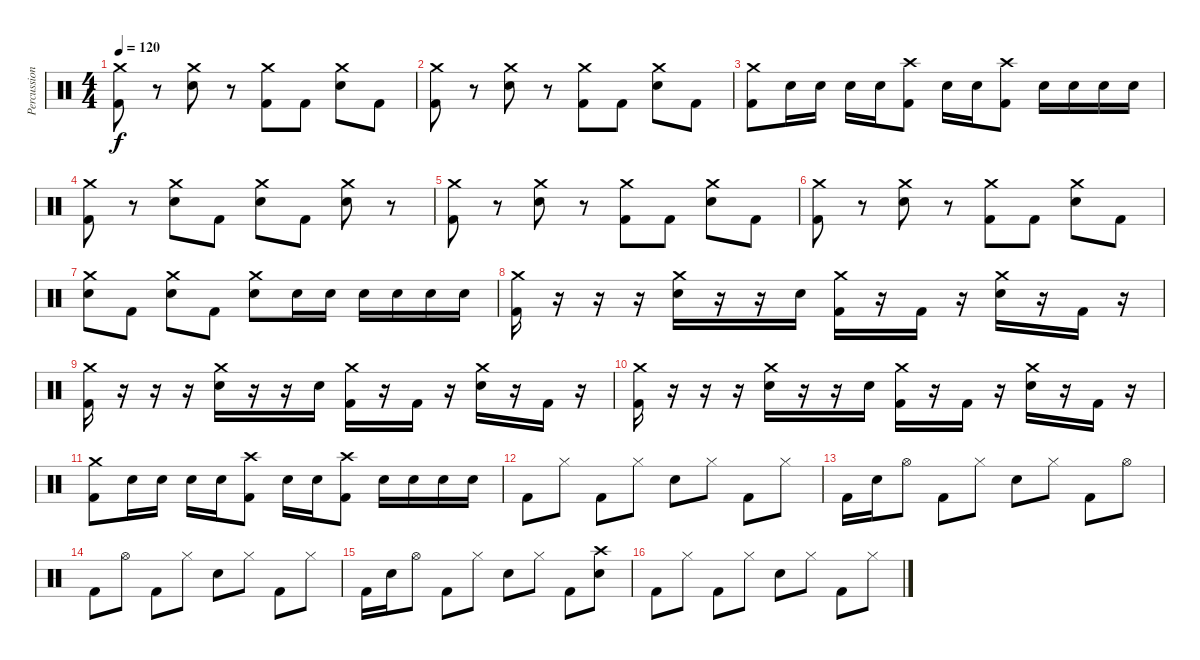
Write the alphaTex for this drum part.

\track ("Percussion" "Percussion") {instrument percussion}
\staff {score}
\articulation defaults
\ts (4 4)
\tempo 120
\clef neutral
\ks c
("Crash medium (hit)" "Kick (hit) 2").8{dy f} r.8 ("Crash medium (hit)" "Snare (hit) 2").8 r.8 ("Crash medium (hit)" "Kick (hit) 2").8 "Kick (hit) 2".8 ("Crash medium (hit)" "Snare (hit) 2").8 "Kick (hit) 2".8 |
("Crash medium (hit)" "Kick (hit) 2").8 r.8 ("Crash medium (hit)" "Snare (hit) 2").8 r.8 ("Crash medium (hit)" "Kick (hit) 2").8 "Kick (hit) 2".8 ("Crash medium (hit)" "Snare (hit) 2").8 "Kick (hit) 2".8 |
("Crash medium (hit)" "Kick (hit) 2").8 "Snare (hit) 2".16 "Snare (hit) 2".16 "Snare (hit) 2".16 "Snare (hit) 2".16 ("Crash high (hit)" "Kick (hit) 2").8 "Snare (hit) 2".16 "Snare (hit) 2".16 ("Crash high (hit)" "Kick (hit) 2").8 "Snare (hit) 2".16 "Snare (hit) 2".16 "Snare (hit) 2".16 "Snare (hit) 2".16 |
("Crash medium (hit)" "Kick (hit) 2").8 r.8 ("Crash medium (hit)" "Snare (hit) 2").8 "Kick (hit) 2".8 ("Crash medium (hit)" "Snare (hit) 2").8 "Kick (hit) 2".8 ("Crash medium (hit)" "Snare (hit) 2").8 r.8 |
("Crash medium (hit)" "Kick (hit) 2").8 r.8 ("Crash medium (hit)" "Snare (hit) 2").8 r.8 ("Crash medium (hit)" "Kick (hit) 2").8 "Kick (hit) 2".8 ("Crash medium (hit)" "Snare (hit) 2").8 "Kick (hit) 2".8 |
("Crash medium (hit)" "Kick (hit) 2").8 r.8 ("Crash medium (hit)" "Snare (hit) 2").8 r.8 ("Crash medium (hit)" "Kick (hit) 2").8 "Kick (hit) 2".8 ("Crash medium (hit)" "Snare (hit) 2").8 "Kick (hit) 2".8 |
("Crash medium (hit)" "Snare (hit) 2").8 "Kick (hit) 2".8 ("Crash medium (hit)" "Snare (hit) 2").8 "Kick (hit) 2".8 ("Crash medium (hit)" "Snare (hit) 2").8 "Snare (hit) 2".16 "Snare (hit) 2".16 "Snare (hit) 2".16 "Snare (hit) 2".16 "Snare (hit) 2".16 "Snare (hit) 2".16 |
("Crash medium (hit)" "Kick (hit) 2").16 r.16 r.16 r.16 ("Crash medium (hit)" "Snare (hit) 2").16 r.16 r.16 "Snare (hit) 2".16 ("Crash medium (hit)" "Kick (hit) 2").16 r.16 "Kick (hit) 2".16 r.16 ("Crash medium (hit)" "Snare (hit) 2").16 r.16 "Kick (hit) 2".16 r.16 |
("Crash medium (hit)" "Kick (hit) 2").16 r.16 r.16 r.16 ("Crash medium (hit)" "Snare (hit) 2").16 r.16 r.16 "Snare (hit) 2".16 ("Crash medium (hit)" "Kick (hit) 2").16 r.16 "Kick (hit) 2".16 r.16 ("Crash medium (hit)" "Snare (hit) 2").16 r.16 "Kick (hit) 2".16 r.16 |
("Crash medium (hit)" "Kick (hit) 2").16 r.16 r.16 r.16 ("Crash medium (hit)" "Snare (hit) 2").16 r.16 r.16 "Snare (hit) 2".16 ("Crash medium (hit)" "Kick (hit) 2").16 r.16 "Kick (hit) 2".16 r.16 ("Crash medium (hit)" "Snare (hit) 2").16 r.16 "Kick (hit) 2".16 r.16 |
("Crash medium (hit)" "Kick (hit) 2").8 "Snare (hit) 2".16 "Snare (hit) 2".16 "Snare (hit) 2".16 "Snare (hit) 2".16 ("Crash high (hit)" "Kick (hit) 2").8 "Snare (hit) 2".16 "Snare (hit) 2".16 ("Crash high (hit)" "Kick (hit) 2").8 "Snare (hit) 2".16 "Snare (hit) 2".16 "Snare (hit) 2".16 "Snare (hit) 2".16 |
"Kick (hit) 2".8 "Hi-Hat (closed)".8 "Kick (hit) 2".8 "Hi-Hat (closed)".8 "Snare (hit) 2".8 "Hi-Hat (closed)".8 "Kick (hit) 2".8 "Hi-Hat (closed)".8 |
"Kick (hit) 2".16 "Snare (hit) 2".16 "Hi-Hat (open)".8 "Kick (hit) 2".8 "Hi-Hat (closed)".8 "Snare (hit) 2".8 "Hi-Hat (closed)".8 "Kick (hit) 2".8 "Hi-Hat (open)".8 |
"Kick (hit) 2".8 "Hi-Hat (open)".8 "Kick (hit) 2".8 "Hi-Hat (closed)".8 "Snare (hit) 2".8 "Hi-Hat (closed)".8 "Kick (hit) 2".8 "Hi-Hat (closed)".8 |
"Kick (hit) 2".16 "Snare (hit) 2".16 "Hi-Hat (open)".8 "Kick (hit) 2".8 "Hi-Hat (closed)".8 "Snare (hit) 2".8 "Hi-Hat (closed)".8 "Kick (hit) 2".8 ("Crash high (hit)" "Snare (hit) 2").8 |
"Kick (hit) 2".8 "Hi-Hat (closed)".8 "Kick (hit) 2".8 "Hi-Hat (closed)".8 "Snare (hit) 2".8 "Hi-Hat (closed)".8 "Kick (hit) 2".8 "Hi-Hat (closed)".8
